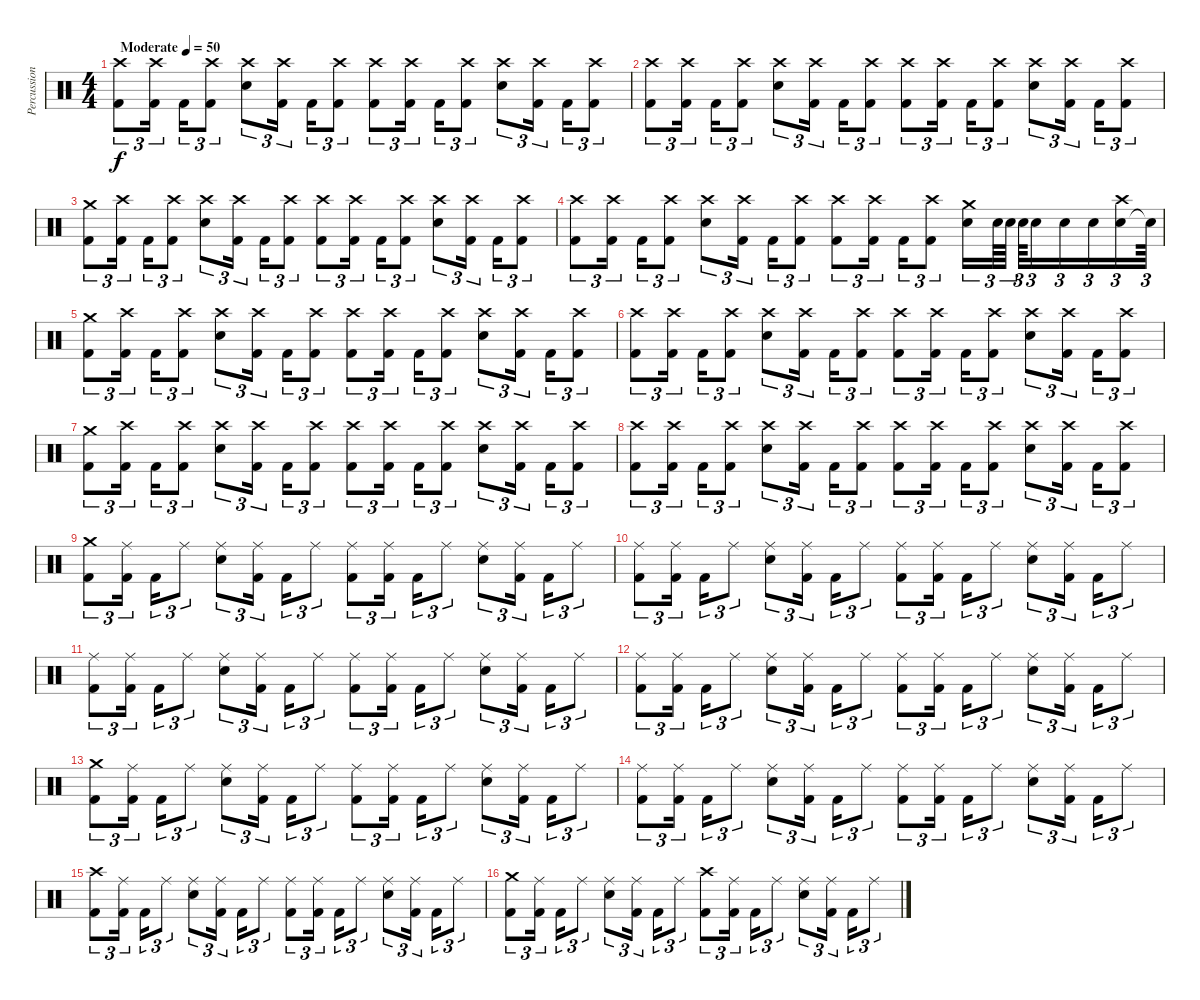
\track ("Percussion" "Percussion") {instrument percussion}
\staff {score}
\articulation defaults
\ts (4 4)
\tempo (50 "Moderate")
\clef neutral
\ks c
("Kick (hit) 2" "Crash high (hit)").8{tu (3 2) dy f} ("Kick (hit) 2" "Crash high (hit)").16{tu (3 2) beam splitsecondary} "Kick (hit) 2".16{tu (3 2)} ("Kick (hit) 2" "Crash high (hit)").8{tu (3 2)} ("Electric Snare (hit)" "Crash high (hit)").8{tu (3 2)} ("Kick (hit) 2" "Crash high (hit)").16{tu (3 2) beam splitsecondary} "Kick (hit) 2".16{tu (3 2)} ("Kick (hit) 2" "Crash high (hit)").8{tu (3 2)} ("Kick (hit) 2" "Crash high (hit)").8{tu (3 2)} ("Kick (hit) 2" "Crash high (hit)").16{tu (3 2) beam splitsecondary} "Kick (hit) 2".16{tu (3 2)} ("Kick (hit) 2" "Crash high (hit)").8{tu (3 2)} ("Electric Snare (hit)" "Crash high (hit)").8{tu (3 2)} ("Kick (hit) 2" "Crash high (hit)").16{tu (3 2) beam splitsecondary} "Kick (hit) 2".16{tu (3 2)} ("Kick (hit) 2" "Crash high (hit)").8{tu (3 2)} |
("Kick (hit) 2" "Crash high (hit)").8{tu (3 2)} ("Kick (hit) 2" "Crash high (hit)").16{tu (3 2) beam splitsecondary} "Kick (hit) 2".16{tu (3 2)} ("Kick (hit) 2" "Crash high (hit)").8{tu (3 2)} ("Electric Snare (hit)" "Crash high (hit)").8{tu (3 2)} ("Kick (hit) 2" "Crash high (hit)").16{tu (3 2) beam splitsecondary} "Kick (hit) 2".16{tu (3 2)} ("Kick (hit) 2" "Crash high (hit)").8{tu (3 2)} ("Kick (hit) 2" "Crash high (hit)").8{tu (3 2)} ("Kick (hit) 2" "Crash high (hit)").16{tu (3 2) beam splitsecondary} "Kick (hit) 2".16{tu (3 2)} ("Kick (hit) 2" "Crash high (hit)").8{tu (3 2)} ("Electric Snare (hit)" "Crash high (hit)").8{tu (3 2)} ("Kick (hit) 2" "Crash high (hit)").16{tu (3 2) beam splitsecondary} "Kick (hit) 2".16{tu (3 2)} ("Kick (hit) 2" "Crash high (hit)").8{tu (3 2)} |
("Kick (hit) 2" "Crash medium (hit)").8{tu (3 2)} ("Kick (hit) 2" "Crash high (hit)").16{tu (3 2) beam splitsecondary} "Kick (hit) 2".16{tu (3 2)} ("Kick (hit) 2" "Crash high (hit)").8{tu (3 2)} ("Electric Snare (hit)" "Crash high (hit)").8{tu (3 2)} ("Kick (hit) 2" "Crash high (hit)").16{tu (3 2) beam splitsecondary} "Kick (hit) 2".16{tu (3 2)} ("Kick (hit) 2" "Crash high (hit)").8{tu (3 2)} ("Kick (hit) 2" "Crash high (hit)").8{tu (3 2)} ("Kick (hit) 2" "Crash high (hit)").16{tu (3 2) beam splitsecondary} "Kick (hit) 2".16{tu (3 2)} ("Kick (hit) 2" "Crash high (hit)").8{tu (3 2)} ("Electric Snare (hit)" "Crash high (hit)").8{tu (3 2)} ("Kick (hit) 2" "Crash high (hit)").16{tu (3 2) beam splitsecondary} "Kick (hit) 2".16{tu (3 2)} ("Kick (hit) 2" "Crash high (hit)").8{tu (3 2)} |
("Kick (hit) 2" "Crash high (hit)").8{tu (3 2)} ("Kick (hit) 2" "Crash high (hit)").16{tu (3 2) beam splitsecondary} "Kick (hit) 2".16{tu (3 2)} ("Kick (hit) 2" "Crash high (hit)").8{tu (3 2)} ("Electric Snare (hit)" "Crash high (hit)").8{tu (3 2)} ("Kick (hit) 2" "Crash high (hit)").16{tu (3 2) beam splitsecondary} "Kick (hit) 2".16{tu (3 2)} ("Kick (hit) 2" "Crash high (hit)").8{tu (3 2)} ("Kick (hit) 2" "Crash high (hit)").8{tu (3 2)} ("Kick (hit) 2" "Crash high (hit)").16{tu (3 2) beam splitsecondary} "Kick (hit) 2".16{tu (3 2)} ("Kick (hit) 2" "Crash high (hit)").8{tu (3 2)} ("Electric Snare (hit)" "Crash medium (hit)").16{tu (3 2)} "Electric Snare (hit)".64{tu (3 2)} "Electric Snare (hit)".64{tu (3 2) beam splitsecondary} "Electric Snare (hit)".64{tu (3 2)} "Electric Snare (hit)".16{tu (3 2)} "Electric Snare (hit)".16{tu (3 2)} "Electric Snare (hit)".16{tu (3 2)} ("Electric Snare (hit)" "Crash high (hit)").16{tu (3 2)} "Snare (hit)"{t}.64{tu (3 2)} |
("Kick (hit) 2" "Crash medium (hit)").8{tu (3 2)} ("Kick (hit) 2" "Crash high (hit)").16{tu (3 2) beam splitsecondary} "Kick (hit) 2".16{tu (3 2)} ("Kick (hit) 2" "Crash high (hit)").8{tu (3 2)} ("Electric Snare (hit)" "Crash high (hit)").8{tu (3 2)} ("Kick (hit) 2" "Crash high (hit)").16{tu (3 2) beam splitsecondary} "Kick (hit) 2".16{tu (3 2)} ("Kick (hit) 2" "Crash high (hit)").8{tu (3 2)} ("Kick (hit) 2" "Crash high (hit)").8{tu (3 2)} ("Kick (hit) 2" "Crash high (hit)").16{tu (3 2) beam splitsecondary} "Kick (hit) 2".16{tu (3 2)} ("Kick (hit) 2" "Crash high (hit)").8{tu (3 2)} ("Electric Snare (hit)" "Crash high (hit)").8{tu (3 2)} ("Kick (hit) 2" "Crash high (hit)").16{tu (3 2) beam splitsecondary} "Kick (hit) 2".16{tu (3 2)} ("Kick (hit) 2" "Crash high (hit)").8{tu (3 2)} |
("Kick (hit) 2" "Crash high (hit)").8{tu (3 2)} ("Kick (hit) 2" "Crash high (hit)").16{tu (3 2) beam splitsecondary} "Kick (hit) 2".16{tu (3 2)} ("Kick (hit) 2" "Crash high (hit)").8{tu (3 2)} ("Electric Snare (hit)" "Crash high (hit)").8{tu (3 2)} ("Kick (hit) 2" "Crash high (hit)").16{tu (3 2) beam splitsecondary} "Kick (hit) 2".16{tu (3 2)} ("Kick (hit) 2" "Crash high (hit)").8{tu (3 2)} ("Kick (hit) 2" "Crash high (hit)").8{tu (3 2)} ("Kick (hit) 2" "Crash high (hit)").16{tu (3 2) beam splitsecondary} "Kick (hit) 2".16{tu (3 2)} ("Kick (hit) 2" "Crash high (hit)").8{tu (3 2)} ("Electric Snare (hit)" "Crash high (hit)").8{tu (3 2)} ("Kick (hit) 2" "Crash high (hit)").16{tu (3 2) beam splitsecondary} "Kick (hit) 2".16{tu (3 2)} ("Kick (hit) 2" "Crash high (hit)").8{tu (3 2)} |
("Kick (hit) 2" "Crash medium (hit)").8{tu (3 2)} ("Kick (hit) 2" "Crash high (hit)").16{tu (3 2) beam splitsecondary} "Kick (hit) 2".16{tu (3 2)} ("Kick (hit) 2" "Crash high (hit)").8{tu (3 2)} ("Electric Snare (hit)" "Crash high (hit)").8{tu (3 2)} ("Kick (hit) 2" "Crash high (hit)").16{tu (3 2) beam splitsecondary} "Kick (hit) 2".16{tu (3 2)} ("Kick (hit) 2" "Crash high (hit)").8{tu (3 2)} ("Kick (hit) 2" "Crash high (hit)").8{tu (3 2)} ("Kick (hit) 2" "Crash high (hit)").16{tu (3 2) beam splitsecondary} "Kick (hit) 2".16{tu (3 2)} ("Kick (hit) 2" "Crash high (hit)").8{tu (3 2)} ("Electric Snare (hit)" "Crash high (hit)").8{tu (3 2)} ("Kick (hit) 2" "Crash high (hit)").16{tu (3 2) beam splitsecondary} "Kick (hit) 2".16{tu (3 2)} ("Kick (hit) 2" "Crash high (hit)").8{tu (3 2)} |
("Kick (hit) 2" "Crash high (hit)").8{tu (3 2)} ("Kick (hit) 2" "Crash high (hit)").16{tu (3 2) beam splitsecondary} "Kick (hit) 2".16{tu (3 2)} ("Kick (hit) 2" "Crash high (hit)").8{tu (3 2)} ("Electric Snare (hit)" "Crash high (hit)").8{tu (3 2)} ("Kick (hit) 2" "Crash high (hit)").16{tu (3 2) beam splitsecondary} "Kick (hit) 2".16{tu (3 2)} ("Kick (hit) 2" "Crash high (hit)").8{tu (3 2)} ("Kick (hit) 2" "Crash high (hit)").8{tu (3 2)} ("Kick (hit) 2" "Crash high (hit)").16{tu (3 2) beam splitsecondary} "Kick (hit) 2".16{tu (3 2)} ("Kick (hit) 2" "Crash high (hit)").8{tu (3 2)} ("Electric Snare (hit)" "Crash high (hit)").8{tu (3 2)} ("Kick (hit) 2" "Crash high (hit)").16{tu (3 2) beam splitsecondary} "Kick (hit) 2".16{tu (3 2)} ("Kick (hit) 2" "Crash high (hit)").8{tu (3 2)} |
("Kick (hit) 2" "Crash medium (hit)").8{tu (3 2)} ("Kick (hit) 2" "Ride (middle)").16{tu (3 2) beam splitsecondary} "Kick (hit) 2".16{tu (3 2)} "Ride (middle)".8{tu (3 2)} ("Electric Snare (hit)" "Ride (middle)").8{tu (3 2)} ("Kick (hit) 2" "Ride (middle)").16{tu (3 2) beam splitsecondary} "Kick (hit) 2".16{tu (3 2)} "Ride (middle)".8{tu (3 2)} ("Kick (hit) 2" "Ride (middle)").8{tu (3 2)} ("Kick (hit) 2" "Ride (middle)").16{tu (3 2) beam splitsecondary} "Kick (hit) 2".16{tu (3 2)} "Ride (middle)".8{tu (3 2)} ("Electric Snare (hit)" "Ride (middle)").8{tu (3 2)} ("Kick (hit) 2" "Ride (middle)").16{tu (3 2) beam splitsecondary} "Kick (hit) 2".16{tu (3 2)} "Ride (middle)".8{tu (3 2)} |
("Kick (hit) 2" "Ride (middle)").8{tu (3 2)} ("Kick (hit) 2" "Ride (middle)").16{tu (3 2) beam splitsecondary} "Kick (hit) 2".16{tu (3 2)} "Ride (middle)".8{tu (3 2)} ("Electric Snare (hit)" "Ride (middle)").8{tu (3 2)} ("Kick (hit) 2" "Ride (middle)").16{tu (3 2) beam splitsecondary} "Kick (hit) 2".16{tu (3 2)} "Ride (middle)".8{tu (3 2)} ("Kick (hit) 2" "Ride (middle)").8{tu (3 2)} ("Kick (hit) 2" "Ride (middle)").16{tu (3 2) beam splitsecondary} "Kick (hit) 2".16{tu (3 2)} "Ride (middle)".8{tu (3 2)} ("Electric Snare (hit)" "Ride (middle)").8{tu (3 2)} ("Kick (hit) 2" "Ride (middle)").16{tu (3 2) beam splitsecondary} "Kick (hit) 2".16{tu (3 2)} "Ride (middle)".8{tu (3 2)} |
("Kick (hit) 2" "Ride (middle)").8{tu (3 2)} ("Kick (hit) 2" "Ride (middle)").16{tu (3 2) beam splitsecondary} "Kick (hit) 2".16{tu (3 2)} "Ride (middle)".8{tu (3 2)} ("Electric Snare (hit)" "Ride (middle)").8{tu (3 2)} ("Kick (hit) 2" "Ride (middle)").16{tu (3 2) beam splitsecondary} "Kick (hit) 2".16{tu (3 2)} "Ride (middle)".8{tu (3 2)} ("Kick (hit) 2" "Ride (middle)").8{tu (3 2)} ("Kick (hit) 2" "Ride (middle)").16{tu (3 2) beam splitsecondary} "Kick (hit) 2".16{tu (3 2)} "Ride (middle)".8{tu (3 2)} ("Electric Snare (hit)" "Ride (middle)").8{tu (3 2)} ("Kick (hit) 2" "Ride (middle)").16{tu (3 2) beam splitsecondary} "Kick (hit) 2".16{tu (3 2)} "Ride (middle)".8{tu (3 2)} |
("Kick (hit) 2" "Ride (middle)").8{tu (3 2)} ("Kick (hit) 2" "Ride (middle)").16{tu (3 2) beam splitsecondary} "Kick (hit) 2".16{tu (3 2)} "Ride (middle)".8{tu (3 2)} ("Electric Snare (hit)" "Ride (middle)").8{tu (3 2)} ("Kick (hit) 2" "Ride (middle)").16{tu (3 2) beam splitsecondary} "Kick (hit) 2".16{tu (3 2)} "Ride (middle)".8{tu (3 2)} ("Kick (hit) 2" "Ride (middle)").8{tu (3 2)} ("Kick (hit) 2" "Ride (middle)").16{tu (3 2) beam splitsecondary} "Kick (hit) 2".16{tu (3 2)} "Ride (middle)".8{tu (3 2)} ("Electric Snare (hit)" "Ride (middle)").8{tu (3 2)} ("Kick (hit) 2" "Ride (middle)").16{tu (3 2) beam splitsecondary} "Kick (hit) 2".16{tu (3 2)} "Ride (middle)".8{tu (3 2)} |
("Kick (hit) 2" "Crash medium (hit)").8{tu (3 2)} ("Kick (hit) 2" "Ride (middle)").16{tu (3 2) beam splitsecondary} "Kick (hit) 2".16{tu (3 2)} "Ride (middle)".8{tu (3 2)} ("Electric Snare (hit)" "Ride (middle)").8{tu (3 2)} ("Kick (hit) 2" "Ride (middle)").16{tu (3 2) beam splitsecondary} "Kick (hit) 2".16{tu (3 2)} "Ride (middle)".8{tu (3 2)} ("Kick (hit) 2" "Ride (middle)").8{tu (3 2)} ("Kick (hit) 2" "Ride (middle)").16{tu (3 2) beam splitsecondary} "Kick (hit) 2".16{tu (3 2)} "Ride (middle)".8{tu (3 2)} ("Electric Snare (hit)" "Ride (middle)").8{tu (3 2)} ("Kick (hit) 2" "Ride (middle)").16{tu (3 2) beam splitsecondary} "Kick (hit) 2".16{tu (3 2)} "Ride (middle)".8{tu (3 2)} |
("Kick (hit) 2" "Ride (middle)").8{tu (3 2)} ("Kick (hit) 2" "Ride (middle)").16{tu (3 2) beam splitsecondary} "Kick (hit) 2".16{tu (3 2)} "Ride (middle)".8{tu (3 2)} ("Electric Snare (hit)" "Ride (middle)").8{tu (3 2)} ("Kick (hit) 2" "Ride (middle)").16{tu (3 2) beam splitsecondary} "Kick (hit) 2".16{tu (3 2)} "Ride (middle)".8{tu (3 2)} ("Kick (hit) 2" "Ride (middle)").8{tu (3 2)} ("Kick (hit) 2" "Ride (middle)").16{tu (3 2) beam splitsecondary} "Kick (hit) 2".16{tu (3 2)} "Ride (middle)".8{tu (3 2)} ("Electric Snare (hit)" "Ride (middle)").8{tu (3 2)} ("Kick (hit) 2" "Ride (middle)").16{tu (3 2) beam splitsecondary} "Kick (hit) 2".16{tu (3 2)} "Ride (middle)".8{tu (3 2)} |
("Kick (hit) 2" "Crash high (hit)").8{tu (3 2)} ("Kick (hit) 2" "Ride (middle)").16{tu (3 2) beam splitsecondary} "Kick (hit) 2".16{tu (3 2)} "Ride (middle)".8{tu (3 2)} ("Electric Snare (hit)" "Ride (middle)").8{tu (3 2)} ("Kick (hit) 2" "Ride (middle)").16{tu (3 2) beam splitsecondary} "Kick (hit) 2".16{tu (3 2)} "Ride (middle)".8{tu (3 2)} ("Kick (hit) 2" "Ride (middle)").8{tu (3 2)} ("Kick (hit) 2" "Ride (middle)").16{tu (3 2) beam splitsecondary} "Kick (hit) 2".16{tu (3 2)} "Ride (middle)".8{tu (3 2)} ("Electric Snare (hit)" "Ride (middle)").8{tu (3 2)} ("Kick (hit) 2" "Ride (middle)").16{tu (3 2) beam splitsecondary} "Kick (hit) 2".16{tu (3 2)} "Ride (middle)".8{tu (3 2)} |
("Kick (hit) 2" "Crash medium (hit)").8{tu (3 2)} ("Kick (hit) 2" "Ride (middle)").16{tu (3 2) beam splitsecondary} "Kick (hit) 2".16{tu (3 2)} "Ride (middle)".8{tu (3 2)} ("Electric Snare (hit)" "Ride (middle)").8{tu (3 2)} ("Kick (hit) 2" "Ride (middle)").16{tu (3 2) beam splitsecondary} "Kick (hit) 2".16{tu (3 2)} "Ride (middle)".8{tu (3 2)} ("Kick (hit) 2" "Crash high (hit)").8{tu (3 2)} ("Kick (hit) 2" "Ride (middle)").16{tu (3 2) beam splitsecondary} "Kick (hit) 2".16{tu (3 2)} "Ride (middle)".8{tu (3 2)} ("Electric Snare (hit)" "Ride (middle)").8{tu (3 2)} ("Kick (hit) 2" "Ride (middle)").16{tu (3 2) beam splitsecondary} "Kick (hit) 2".16{tu (3 2)} "Ride (middle)".8{tu (3 2)}
